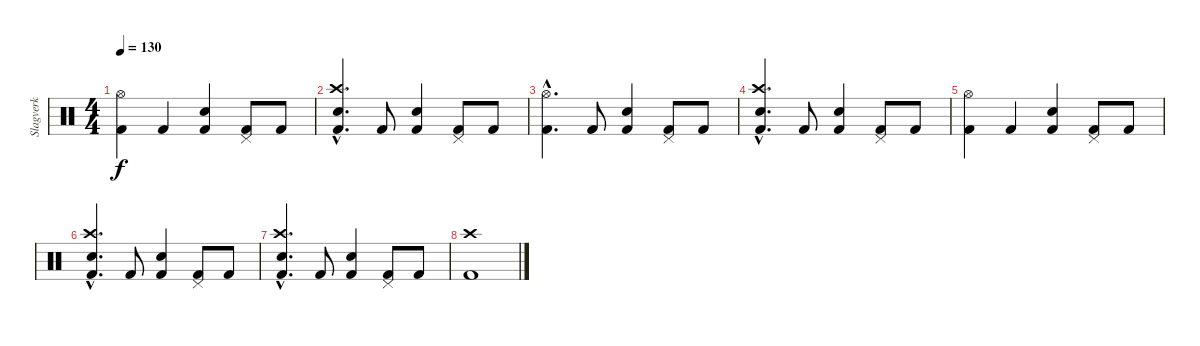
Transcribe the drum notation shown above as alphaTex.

\track ("Slagverk" "Slagverk") {instrument percussion}
\staff {score}
\articulation defaults
\ts (4 4)
\tempo 130
\clef neutral
\ks c
("Hi-Hat (open)" "Kick (hit) 2").4{dy f} "Kick (hit) 2".4 ("Electric Snare (hit)" "Kick (hit) 2").4 ("Pedal Hi-Hat (hit)" "Kick (hit) 2").8 "Kick (hit) 2".8 |
("Crash high (hit)"{hac} "Snare (hit) 2"{hac} "Kick (hit) 2"{hac}).4{d} "Kick (hit) 2".8 ("Electric Snare (hit)" "Kick (hit) 2").4 ("Pedal Hi-Hat (hit)" "Kick (hit) 2").8 "Kick (hit) 2".8 |
("Hi-Hat (open)"{hac} "Kick (hit) 2"{hac}).4{d} "Kick (hit) 2".8 ("Electric Snare (hit)" "Kick (hit) 2").4 ("Pedal Hi-Hat (hit)" "Kick (hit) 2").8 "Kick (hit) 2".8 |
("Crash high (hit)"{hac} "Snare (hit) 2"{hac} "Kick (hit) 2"{hac}).4{d} "Kick (hit) 2".8 ("Electric Snare (hit)" "Kick (hit) 2").4 ("Pedal Hi-Hat (hit)" "Kick (hit) 2").8 "Kick (hit) 2".8 |
("Hi-Hat (open)" "Kick (hit) 2").4 "Kick (hit) 2".4 ("Electric Snare (hit)" "Kick (hit) 2").4 ("Pedal Hi-Hat (hit)" "Kick (hit) 2").8 "Kick (hit) 2".8 |
("Crash high (hit)"{hac} "Snare (hit) 2"{hac} "Kick (hit) 2"{hac}).4{d} "Kick (hit) 2".8 ("Electric Snare (hit)" "Kick (hit) 2").4 ("Pedal Hi-Hat (hit)" "Kick (hit) 2").8 "Kick (hit) 2".8 |
("Crash high (hit)"{hac} "Snare (hit) 2"{hac} "Kick (hit) 2"{hac}).4{d} "Kick (hit) 2".8 ("Electric Snare (hit)" "Kick (hit) 2").4 ("Pedal Hi-Hat (hit)" "Kick (hit) 2").8 "Kick (hit) 2".8 |
("Crash high (hit)" "Kick (hit) 2").1
